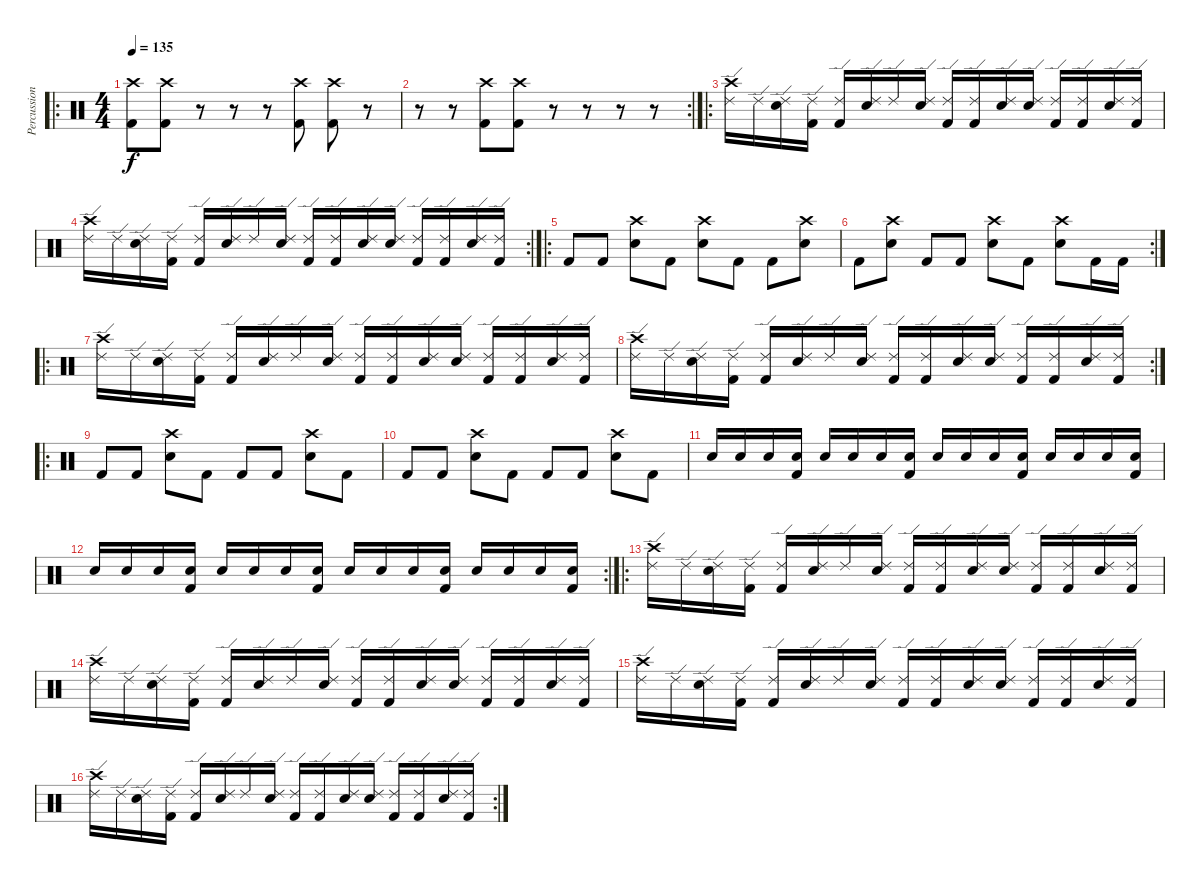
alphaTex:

\track ("Percussions" "Percussion") {instrument percussion}
\staff {score}
\articulation defaults
\ro
\ts (4 4)
\tempo 135
\clef neutral
\ks c
("Crash high (hit)" "Kick (hit) 2").8{dy f} ("Crash high (hit)" "Kick (hit) 2").8 r.8 r.8 r.8 ("Crash high (hit)" "Kick (hit) 2").8 ("Crash high (hit)" "Kick (hit) 2").8 r.8 |
\rc 2
r.8 r.8 ("Crash high (hit)" "Kick (hit) 2").8 ("Crash high (hit)" "Kick (hit) 2").8 r.8 r.8 r.8 r.8 |
\ro
("Ride (edge) 2" "Crash high (hit)").16 "Ride (edge) 2".16 ("Ride (edge) 2" "Snare (hit) 2").16 ("Ride (edge) 2" "Kick (hit) 2").16 ("Ride (edge) 2" "Kick (hit) 2").16 ("Ride (edge) 2" "Snare (hit) 2").16 "Ride (edge) 2".16 ("Ride (edge) 2" "Snare (hit) 2").16 ("Ride (edge) 2" "Kick (hit) 2").16 ("Ride (edge) 2" "Kick (hit) 2").16 ("Ride (edge) 2" "Snare (hit) 2").16 ("Ride (edge) 2" "Snare (hit) 2").16 ("Ride (edge) 2" "Kick (hit) 2").16 ("Ride (edge) 2" "Kick (hit) 2").16 ("Ride (edge) 2" "Snare (hit) 2").16 ("Ride (edge) 2" "Kick (hit) 2").16 |
\rc 2
("Ride (edge) 2" "Crash high (hit)").16 "Ride (edge) 2".16 ("Ride (edge) 2" "Snare (hit) 2").16 ("Ride (edge) 2" "Kick (hit) 2").16 ("Ride (edge) 2" "Kick (hit) 2").16 ("Ride (edge) 2" "Snare (hit) 2").16 "Ride (edge) 2".16 ("Ride (edge) 2" "Snare (hit) 2").16 ("Ride (edge) 2" "Kick (hit) 2").16 ("Ride (edge) 2" "Kick (hit) 2").16 ("Ride (edge) 2" "Snare (hit) 2").16 ("Ride (edge) 2" "Snare (hit) 2").16 ("Ride (edge) 2" "Kick (hit) 2").16 ("Ride (edge) 2" "Kick (hit) 2").16 ("Ride (edge) 2" "Snare (hit) 2").16 ("Ride (edge) 2" "Kick (hit) 2").16 |
\ro "Kick (hit) 2".8 "Kick (hit) 2".8
("Crash high (hit)" "Snare (hit) 2").8 "Kick (hit) 2".8 ("Crash high (hit)" "Snare (hit) 2").8 "Kick (hit) 2".8 "Kick (hit) 2".8 ("Crash high (hit)" "Snare (hit) 2").8 |
\rc 2 "Kick (hit) 2".8
("Crash high (hit)" "Snare (hit) 2").8 "Kick (hit) 2".8 "Kick (hit) 2".8 ("Crash high (hit)" "Snare (hit) 2").8 "Kick (hit) 2".8 ("Crash high (hit)" "Snare (hit) 2").8 "Kick (hit) 2".16 "Kick (hit) 2".16 |
\ro
("Ride (edge) 2" "Crash high (hit)").16 "Ride (edge) 2".16 ("Ride (edge) 2" "Snare (hit) 2").16 ("Ride (edge) 2" "Kick (hit) 2").16 ("Ride (edge) 2" "Kick (hit) 2").16 ("Ride (edge) 2" "Snare (hit) 2").16 "Ride (edge) 2".16 ("Ride (edge) 2" "Snare (hit) 2").16 ("Ride (edge) 2" "Kick (hit) 2").16 ("Ride (edge) 2" "Kick (hit) 2").16 ("Ride (edge) 2" "Snare (hit) 2").16 ("Ride (edge) 2" "Snare (hit) 2").16 ("Ride (edge) 2" "Kick (hit) 2").16 ("Ride (edge) 2" "Kick (hit) 2").16 ("Ride (edge) 2" "Snare (hit) 2").16 ("Ride (edge) 2" "Kick (hit) 2").16 |
\rc 2
("Ride (edge) 2" "Crash high (hit)").16 "Ride (edge) 2".16 ("Ride (edge) 2" "Snare (hit) 2").16 ("Ride (edge) 2" "Kick (hit) 2").16 ("Ride (edge) 2" "Kick (hit) 2").16 ("Ride (edge) 2" "Snare (hit) 2").16 "Ride (edge) 2".16 ("Ride (edge) 2" "Snare (hit) 2").16 ("Ride (edge) 2" "Kick (hit) 2").16 ("Ride (edge) 2" "Kick (hit) 2").16 ("Ride (edge) 2" "Snare (hit) 2").16 ("Ride (edge) 2" "Snare (hit) 2").16 ("Ride (edge) 2" "Kick (hit) 2").16 ("Ride (edge) 2" "Kick (hit) 2").16 ("Ride (edge) 2" "Snare (hit) 2").16 ("Ride (edge) 2" "Kick (hit) 2").16 |
\ro "Kick (hit) 2".8 "Kick (hit) 2".8
("Crash high (hit)" "Snare (hit) 2").8 "Kick (hit) 2".8 "Kick (hit) 2".8 "Kick (hit) 2".8 ("Crash high (hit)" "Snare (hit) 2").8 "Kick (hit) 2".8 |
"Kick (hit) 2".8 "Kick (hit) 2".8 ("Crash high (hit)" "Snare (hit) 2").8 "Kick (hit) 2".8 "Kick (hit) 2".8 "Kick (hit) 2".8 ("Crash high (hit)" "Snare (hit) 2").8 "Kick (hit) 2".8 |
"Snare (hit) 2".16 "Snare (hit) 2".16 "Snare (hit) 2".16 ("Snare (hit) 2" "Kick (hit) 2").16 "Snare (hit) 2".16 "Snare (hit) 2".16 "Snare (hit) 2".16 ("Snare (hit) 2" "Kick (hit) 2").16 "Snare (hit) 2".16 "Snare (hit) 2".16 "Snare (hit) 2".16 ("Snare (hit) 2" "Kick (hit) 2").16 "Snare (hit) 2".16 "Snare (hit) 2".16 "Snare (hit) 2".16 ("Snare (hit) 2" "Kick (hit) 2").16 |
\rc 2 "Snare (hit) 2".16 "Snare (hit) 2".16 "Snare (hit) 2".16
("Snare (hit) 2" "Kick (hit) 2").16 "Snare (hit) 2".16 "Snare (hit) 2".16 "Snare (hit) 2".16 ("Snare (hit) 2" "Kick (hit) 2").16 "Snare (hit) 2".16 "Snare (hit) 2".16 "Snare (hit) 2".16 ("Snare (hit) 2" "Kick (hit) 2").16 "Snare (hit) 2".16 "Snare (hit) 2".16 "Snare (hit) 2".16 ("Snare (hit) 2" "Kick (hit) 2").16 |
\ro
("Ride (edge) 2" "Crash high (hit)").16 "Ride (edge) 2".16 ("Ride (edge) 2" "Snare (hit) 2").16 ("Ride (edge) 2" "Kick (hit) 2").16 ("Ride (edge) 2" "Kick (hit) 2").16 ("Ride (edge) 2" "Snare (hit) 2").16 "Ride (edge) 2".16 ("Ride (edge) 2" "Snare (hit) 2").16 ("Ride (edge) 2" "Kick (hit) 2").16 ("Ride (edge) 2" "Kick (hit) 2").16 ("Ride (edge) 2" "Snare (hit) 2").16 ("Ride (edge) 2" "Snare (hit) 2").16 ("Ride (edge) 2" "Kick (hit) 2").16 ("Ride (edge) 2" "Kick (hit) 2").16 ("Ride (edge) 2" "Snare (hit) 2").16 ("Ride (edge) 2" "Kick (hit) 2").16 |
("Ride (edge) 2" "Crash high (hit)").16 "Ride (edge) 2".16 ("Ride (edge) 2" "Snare (hit) 2").16 ("Ride (edge) 2" "Kick (hit) 2").16 ("Ride (edge) 2" "Kick (hit) 2").16 ("Ride (edge) 2" "Snare (hit) 2").16 "Ride (edge) 2".16 ("Ride (edge) 2" "Snare (hit) 2").16 ("Ride (edge) 2" "Kick (hit) 2").16 ("Ride (edge) 2" "Kick (hit) 2").16 ("Ride (edge) 2" "Snare (hit) 2").16 ("Ride (edge) 2" "Snare (hit) 2").16 ("Ride (edge) 2" "Kick (hit) 2").16 ("Ride (edge) 2" "Kick (hit) 2").16 ("Ride (edge) 2" "Snare (hit) 2").16 ("Ride (edge) 2" "Kick (hit) 2").16 |
("Ride (edge) 2" "Crash high (hit)").16 "Ride (edge) 2".16 ("Ride (edge) 2" "Snare (hit) 2").16 ("Ride (edge) 2" "Kick (hit) 2").16 ("Ride (edge) 2" "Kick (hit) 2").16 ("Ride (edge) 2" "Snare (hit) 2").16 "Ride (edge) 2".16 ("Ride (edge) 2" "Snare (hit) 2").16 ("Ride (edge) 2" "Kick (hit) 2").16 ("Ride (edge) 2" "Kick (hit) 2").16 ("Ride (edge) 2" "Snare (hit) 2").16 ("Ride (edge) 2" "Snare (hit) 2").16 ("Ride (edge) 2" "Kick (hit) 2").16 ("Ride (edge) 2" "Kick (hit) 2").16 ("Ride (edge) 2" "Snare (hit) 2").16 ("Ride (edge) 2" "Kick (hit) 2").16 |
\rc 2
("Ride (edge) 2" "Crash high (hit)").16 "Ride (edge) 2".16 ("Ride (edge) 2" "Snare (hit) 2").16 ("Ride (edge) 2" "Kick (hit) 2").16 ("Ride (edge) 2" "Kick (hit) 2").16 ("Ride (edge) 2" "Snare (hit) 2").16 "Ride (edge) 2".16 ("Ride (edge) 2" "Snare (hit) 2").16 ("Ride (edge) 2" "Kick (hit) 2").16 ("Ride (edge) 2" "Kick (hit) 2").16 ("Ride (edge) 2" "Snare (hit) 2").16 ("Ride (edge) 2" "Snare (hit) 2").16 ("Ride (edge) 2" "Kick (hit) 2").16 ("Ride (edge) 2" "Kick (hit) 2").16 ("Ride (edge) 2" "Snare (hit) 2").16 ("Ride (edge) 2" "Kick (hit) 2").16
